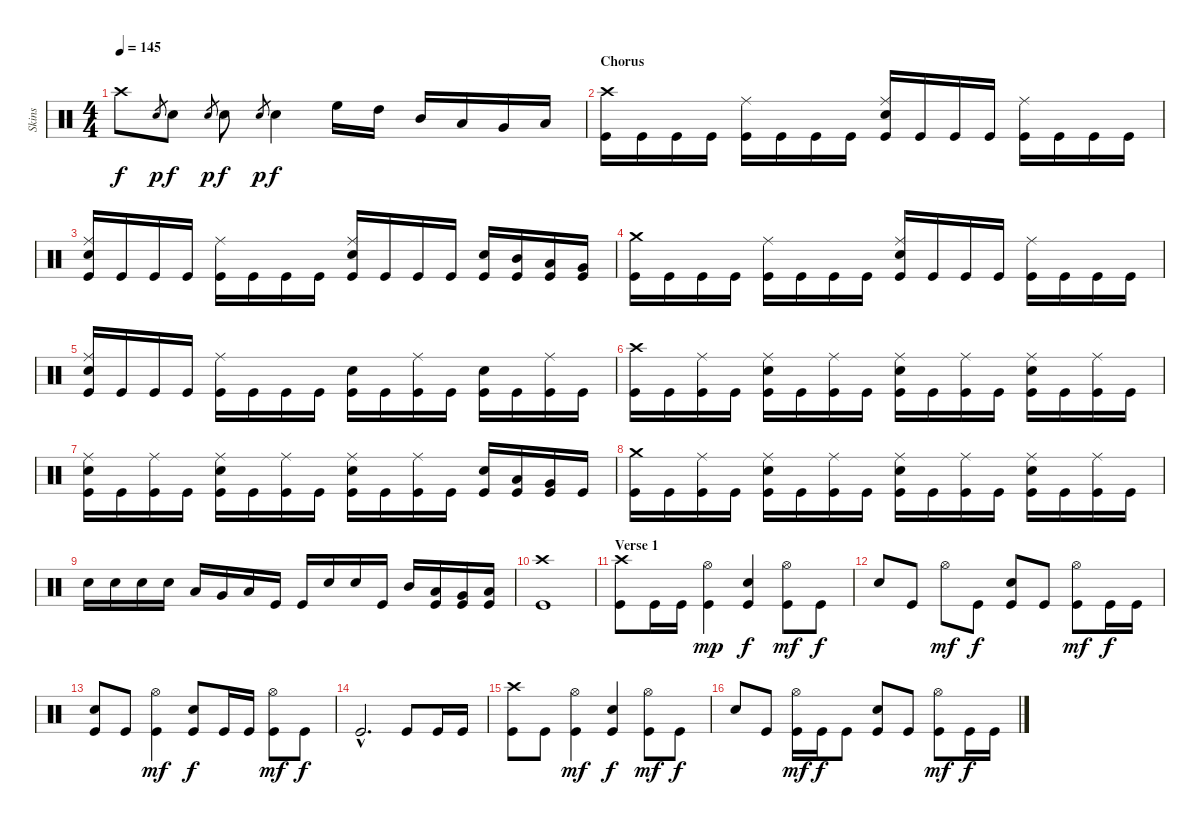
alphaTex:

\track ("Skins" "Skins") {instrument percussion}
\staff {score}
\articulation defaults
\ts (4 4)
\tempo 145
\clef neutral
\ks c "Crash high (hit)".8{dy f} "Snare (hit) 2".8{gr dy p} "Snare (hit) 2".8{dy f} "Snare (hit) 2".8{gr dy p} "Snare (hit) 2".8{dy f} "Snare (hit) 2".8{gr dy p} "Snare (hit) 2".4{dy f} "High Floor Tom (hit)".16 "High Tom (hit)".16 "Mid Tom (hit)".16 "Low Tom (hit)".16 "Very Low Tom (hit)".16 "Low Floor Tom (hit)".16
|
\section ("" "Chorus")
("Crash high (hit)" "Kick (hit)").16 "Kick (hit)".16 "Kick (hit)".16 "Kick (hit)".16 ("Ride (middle)" "Kick (hit)").16 "Kick (hit)".16 "Kick (hit)".16 "Kick (hit)".16 ("Ride (middle)" "Electric Snare (hit)" "Kick (hit)").16 "Kick (hit)".16 "Kick (hit)".16 "Kick (hit)".16 ("Ride (middle)" "Kick (hit)").16 "Kick (hit)".16 "Kick (hit)".16 "Kick (hit)".16 |
("Ride (middle)" "Electric Snare (hit)" "Kick (hit)").16 "Kick (hit)".16 "Kick (hit)".16 "Kick (hit)".16 ("Ride (middle)" "Kick (hit)").16 "Kick (hit)".16 "Kick (hit)".16 "Kick (hit)".16 ("Ride (middle)" "Electric Snare (hit)" "Kick (hit)").16 "Kick (hit)".16 "Kick (hit)".16 "Kick (hit)".16 ("Electric Snare (hit)" "Kick (hit)").16 ("Mid Tom (hit)" "Kick (hit)").16 ("Low Tom (hit)" "Kick (hit)").16 ("Very Low Tom (hit)" "Kick (hit)").16 |
("Crash medium (hit)" "Kick (hit)").16 "Kick (hit)".16 "Kick (hit)".16 "Kick (hit)".16 ("Ride (middle)" "Kick (hit)").16 "Kick (hit)".16 "Kick (hit)".16 "Kick (hit)".16 ("Ride (middle)" "Electric Snare (hit)" "Kick (hit)").16 "Kick (hit)".16 "Kick (hit)".16 "Kick (hit)".16 ("Ride (middle)" "Kick (hit)").16 "Kick (hit)".16 "Kick (hit)".16 "Kick (hit)".16 |
("Ride (middle)" "Electric Snare (hit)" "Kick (hit)").16 "Kick (hit)".16 "Kick (hit)".16 "Kick (hit)".16 ("Ride (middle)" "Kick (hit)").16 "Kick (hit)".16 "Kick (hit)".16 "Kick (hit)".16 ("Electric Snare (hit)" "Kick (hit)").16 "Kick (hit)".16 ("Ride (middle)" "Kick (hit)").16 "Kick (hit)".16 ("Electric Snare (hit)" "Kick (hit)").16 "Kick (hit)".16 ("Ride (middle)" "Kick (hit)").16 "Kick (hit)".16 |
("Crash high (hit)" "Kick (hit)").16 "Kick (hit)".16 ("Ride (middle)" "Kick (hit)").16 "Kick (hit)".16 ("Ride (middle)" "Electric Snare (hit)" "Kick (hit)").16 "Kick (hit)".16 ("Ride (middle)" "Kick (hit)").16 "Kick (hit)".16 ("Ride (middle)" "Electric Snare (hit)" "Kick (hit)").16 "Kick (hit)".16 ("Ride (middle)" "Kick (hit)").16 "Kick (hit)".16 ("Ride (middle)" "Electric Snare (hit)" "Kick (hit)").16 "Kick (hit)".16 ("Ride (middle)" "Kick (hit)").16 "Kick (hit)".16 |
("Ride (middle)" "Electric Snare (hit)" "Kick (hit)").16 "Kick (hit)".16 ("Ride (middle)" "Kick (hit)").16 "Kick (hit)".16 ("Ride (middle)" "Electric Snare (hit)" "Kick (hit)").16 "Kick (hit)".16 ("Ride (middle)" "Kick (hit)").16 "Kick (hit)".16 ("Ride (middle)" "Electric Snare (hit)" "Kick (hit)").16 "Kick (hit)".16 ("Ride (middle)" "Kick (hit)").16 "Kick (hit)".16 ("Electric Snare (hit)" "Kick (hit)").16 ("Low Tom (hit)" "Kick (hit)").16 ("Very Low Tom (hit)" "Kick (hit)").16 "Kick (hit)".16 |
("Crash medium (hit)" "Kick (hit)").16 "Kick (hit)".16 ("Ride (middle)" "Kick (hit)").16 "Kick (hit)".16 ("Ride (middle)" "Electric Snare (hit)" "Kick (hit)").16 "Kick (hit)".16 ("Ride (middle)" "Kick (hit)").16 "Kick (hit)".16 ("Ride (middle)" "Electric Snare (hit)" "Kick (hit)").16 "Kick (hit)".16 ("Ride (middle)" "Kick (hit)").16 "Kick (hit)".16 ("Ride (middle)" "Electric Snare (hit)" "Kick (hit)").16 "Kick (hit)".16 ("Ride (middle)" "Kick (hit)").16 "Kick (hit)".16 |
"Electric Snare (hit)".16 "Electric Snare (hit)".16 "Snare (hit) 2".16 "Snare (hit) 2".16 "Low Tom (hit)".16 "Very Low Tom (hit)".16 "Low Floor Tom (hit)".16 "Kick (hit)".16 "Kick (hit)".16 "Snare (hit) 2".16 "Snare (hit) 2".16 "Kick (hit)".16 "Mid Tom (hit)".16 ("Low Tom (hit)" "Kick (hit)").16 ("Very Low Tom (hit)" "Kick (hit)").16 ("Low Floor Tom (hit)" "Kick (hit)").16 |
("Crash high (hit)" "Kick (hit)").1 |
\section ("" "Verse 1")
("Crash high (hit)" "Kick (hit)").8 "Kick (hit)".16 "Kick (hit)".16 ("Hi-Hat (open)" "Kick (hit)").4{dy mp} ("Electric Snare (hit)" "Kick (hit)").4{dy f} ("Hi-Hat (open)" "Kick (hit)").8{dy mf} "Kick (hit)".8{dy f} |
"Electric Snare (hit)".8 "Kick (hit)".8 "Hi-Hat (open)".8{dy mf} "Kick (hit)".8{dy f} ("Electric Snare (hit)" "Kick (hit)").8 "Kick (hit)".8 ("Hi-Hat (open)" "Kick (hit)").8{dy mf} "Kick (hit)".16{dy f} "Kick (hit)".16 |
("Electric Snare (hit)" "Kick (hit)").8 "Kick (hit)".8 ("Hi-Hat (open)" "Kick (hit)").4{dy mf} ("Electric Snare (hit)" "Kick (hit)").8{dy f} "Kick (hit)".16 "Kick (hit)".16 ("Hi-Hat (open)" "Kick (hit)").8{dy mf} "Kick (hit)".8{dy f} |
"Kick (hit)"{hac}.2{d} "Kick (hit)".8 "Kick (hit)".16 "Kick (hit)".16 |
("Crash high (hit)" "Kick (hit)").8 "Kick (hit)".8 ("Hi-Hat (open)" "Kick (hit)").4{dy mf} ("Electric Snare (hit)" "Kick (hit)").4{dy f} ("Hi-Hat (open)" "Kick (hit)").8{dy mf} "Kick (hit)".8{dy f} |
"Electric Snare (hit)".8 "Kick (hit)".8 ("Hi-Hat (open)" "Kick (hit)").16{dy mf} "Kick (hit)".16{dy f} "Kick (hit)".8 ("Electric Snare (hit)" "Kick (hit)").8 "Kick (hit)".8 ("Hi-Hat (open)" "Kick (hit)").8{dy mf} "Kick (hit)".16{dy f} "Kick (hit)".16
